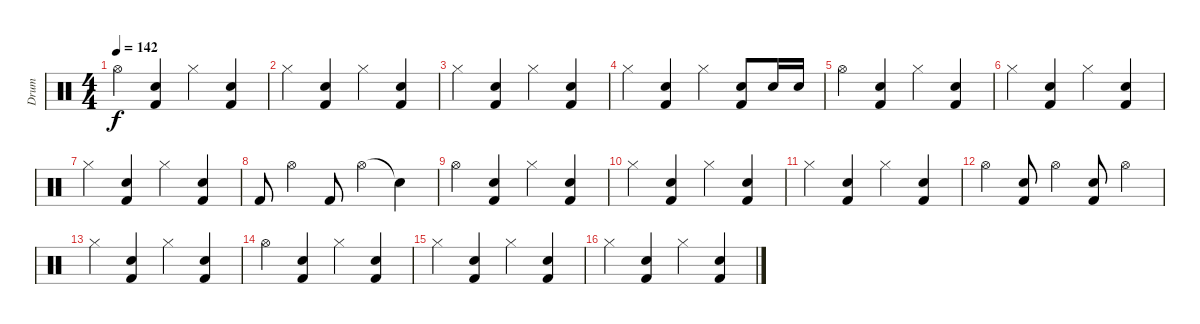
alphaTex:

\track ("Drum" "Drum") {instrument percussion}
\staff {score}
\articulation defaults
\ts (4 4)
\tempo 142
\clef neutral
\ks c "Hi-Hat (open)".4{dy f}
("Electric Snare (hit)" "Kick (hit) 2").4 "Hi-Hat (closed)".4 ("Electric Snare (hit)" "Kick (hit) 2").4 |
"Hi-Hat (closed)".4 ("Electric Snare (hit)" "Kick (hit) 2").4 "Hi-Hat (closed)".4 ("Electric Snare (hit)" "Kick (hit) 2").4 |
"Hi-Hat (closed)".4 ("Electric Snare (hit)" "Kick (hit) 2").4 "Hi-Hat (closed)".4 ("Electric Snare (hit)" "Kick (hit) 2").4 |
"Hi-Hat (closed)".4 ("Electric Snare (hit)" "Kick (hit) 2").4 "Hi-Hat (closed)".4 ("Electric Snare (hit)" "Kick (hit) 2").8 "Electric Snare (hit)".16 "Electric Snare (hit)".16 |
"Hi-Hat (open)".4 ("Electric Snare (hit)" "Kick (hit) 2").4 "Hi-Hat (closed)".4 ("Electric Snare (hit)" "Kick (hit) 2").4 |
"Hi-Hat (closed)".4 ("Electric Snare (hit)" "Kick (hit) 2").4 "Hi-Hat (closed)".4 ("Electric Snare (hit)" "Kick (hit) 2").4 |
"Hi-Hat (closed)".4 ("Electric Snare (hit)" "Kick (hit) 2").4 "Hi-Hat (closed)".4 ("Electric Snare (hit)" "Kick (hit) 2").4 |
"Kick (hit) 2".8 "Hi-Hat (open)".4 "Kick (hit) 2".8 "Hi-Hat (open)".4 "Snare (hit)"{t}.4 |
"Hi-Hat (open)".4 ("Electric Snare (hit)" "Kick (hit) 2").4 "Hi-Hat (closed)".4 ("Electric Snare (hit)" "Kick (hit) 2").4 |
"Hi-Hat (closed)".4 ("Electric Snare (hit)" "Kick (hit) 2").4 "Hi-Hat (closed)".4 ("Electric Snare (hit)" "Kick (hit) 2").4 |
"Hi-Hat (closed)".4 ("Electric Snare (hit)" "Kick (hit) 2").4 "Hi-Hat (closed)".4 ("Electric Snare (hit)" "Kick (hit) 2").4 |
"Hi-Hat (open)".4 ("Electric Snare (hit)" "Kick (hit) 2").8 "Hi-Hat (open)".4 ("Electric Snare (hit)" "Kick (hit) 2").8 "Hi-Hat (open)".4 |
"Hi-Hat (closed)".4 ("Electric Snare (hit)" "Kick (hit) 2").4 "Hi-Hat (closed)".4 ("Electric Snare (hit)" "Kick (hit) 2").4 |
"Hi-Hat (open)".4 ("Electric Snare (hit)" "Kick (hit) 2").4 "Hi-Hat (closed)".4 ("Electric Snare (hit)" "Kick (hit) 2").4 |
"Hi-Hat (closed)".4 ("Electric Snare (hit)" "Kick (hit) 2").4 "Hi-Hat (closed)".4 ("Electric Snare (hit)" "Kick (hit) 2").4 |
"Hi-Hat (closed)".4 ("Electric Snare (hit)" "Kick (hit) 2").4 "Hi-Hat (closed)".4 ("Electric Snare (hit)" "Kick (hit) 2").4
